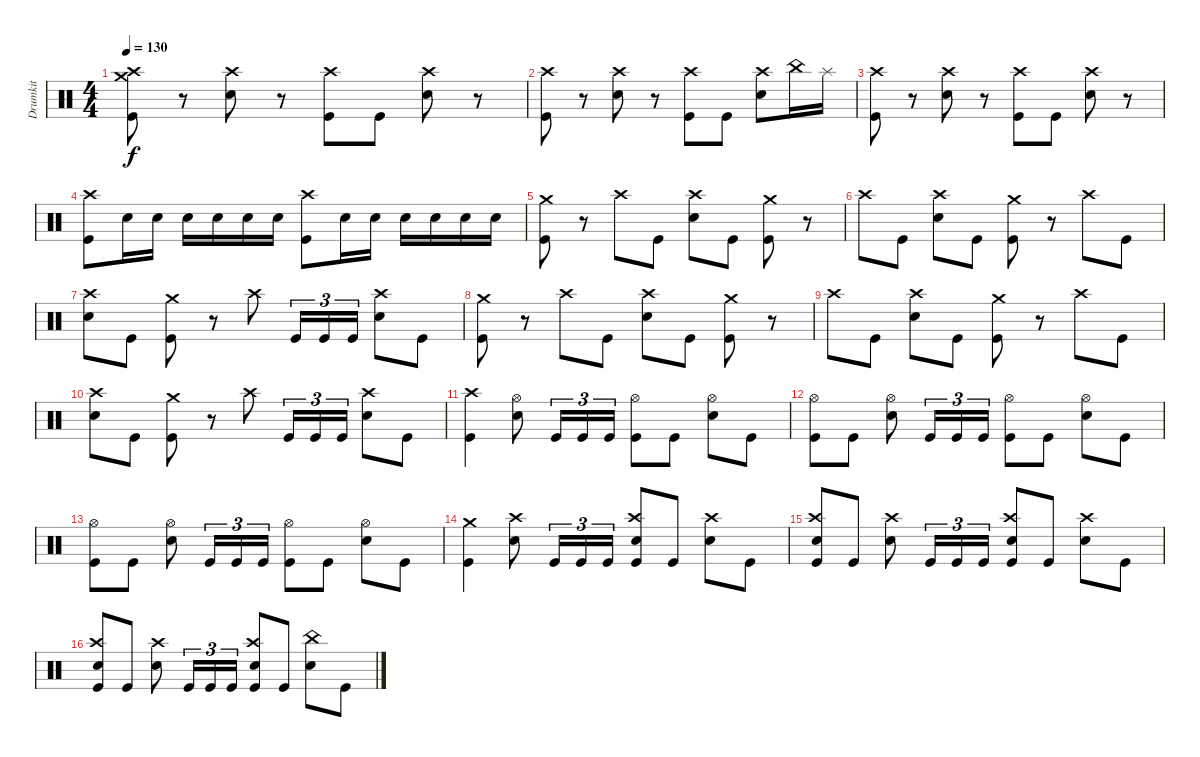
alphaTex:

\track ("Drumkit" "Drumkit") {instrument percussion}
\staff {score}
\articulation defaults
\ts (4 4)
\tempo 130
\clef neutral
\ks c
("Kick (hit)" "Crash high (hit)" "Crash medium (hit)").8{dy f} r.8 ("Snare (hit) 2" "Crash high (hit)").8 r.8 ("Kick (hit)" "Crash high (hit)").8 "Kick (hit)".8 ("Crash high (hit)" "Snare (hit) 2").8 r.8 |
("Kick (hit)" "Crash high (hit)").8 r.8 ("Snare (hit) 2" "Crash high (hit)").8 r.8 ("Kick (hit)" "Crash high (hit)").8 "Kick (hit)".8 ("Snare (hit) 2" "Crash high (hit)").8 "China (hit)".16 "Splash (hit)".16 |
("Kick (hit)" "Crash high (hit)").8 r.8 ("Snare (hit) 2" "Crash high (hit)").8 r.8 ("Kick (hit)" "Crash high (hit)").8 "Kick (hit)".8 ("Crash high (hit)" "Snare (hit) 2").8 r.8 |
("Kick (hit)" "Crash high (hit)").8 "Snare (hit) 2".16 "Snare (hit) 2".16 "Snare (hit) 2".16 "Snare (hit) 2".16 "Snare (hit) 2".16 "Snare (hit) 2".16 ("Kick (hit)" "Crash high (hit)").8 "Snare (hit) 2".16 "Snare (hit) 2".16 "Snare (hit) 2".16 "Snare (hit) 2".16 "Snare (hit) 2".16 "Snare (hit) 2".16 |
("Kick (hit)" "Crash medium (hit)").8 r.8 "Crash high (hit)".8 "Kick (hit)".8 ("Crash high (hit)" "Snare (hit) 2").8 "Kick (hit)".8 ("Kick (hit)" "Crash medium (hit)").8 r.8 |
"Crash high (hit)".8 "Kick (hit)".8 ("Crash high (hit)" "Snare (hit) 2").8 "Kick (hit)".8 ("Kick (hit)" "Crash medium (hit)").8 r.8 "Crash high (hit)".8 "Kick (hit)".8 |
("Snare (hit) 2" "Crash high (hit)").8 "Kick (hit)".8 ("Kick (hit)" "Crash medium (hit)").8 r.8 "Crash high (hit)".8 "Kick (hit)".16{tu (3 2)} "Kick (hit)".16{tu (3 2)} "Kick (hit)".16{tu (3 2)} ("Snare (hit) 2" "Crash high (hit)").8 "Kick (hit)".8 |
("Kick (hit)" "Crash medium (hit)").8 r.8 "Crash high (hit)".8 "Kick (hit)".8 ("Crash high (hit)" "Snare (hit) 2").8 "Kick (hit)".8 ("Kick (hit)" "Crash medium (hit)").8 r.8 |
"Crash high (hit)".8 "Kick (hit)".8 ("Crash high (hit)" "Snare (hit) 2").8 "Kick (hit)".8 ("Kick (hit)" "Crash medium (hit)").8 r.8 "Crash high (hit)".8 "Kick (hit)".8 |
("Snare (hit) 2" "Crash high (hit)").8 "Kick (hit)".8 ("Kick (hit)" "Crash medium (hit)").8 r.8 "Crash high (hit)".8 "Kick (hit)".16{tu (3 2)} "Kick (hit)".16{tu (3 2)} "Kick (hit)".16{tu (3 2)} ("Snare (hit) 2" "Crash high (hit)").8 "Kick (hit)".8 |
("Kick (hit)" "Crash high (hit)").4 ("Snare (hit) 2" "Hi-Hat (open)").8 "Kick (hit)".16{tu (3 2)} "Kick (hit)".16{tu (3 2)} "Kick (hit)".16{tu (3 2)} ("Kick (hit)" "Hi-Hat (open)").8 "Kick (hit)".8 ("Hi-Hat (open)" "Snare (hit) 2").8 "Kick (hit)".8 |
("Hi-Hat (open)" "Kick (hit)").8 "Kick (hit)".8 ("Snare (hit) 2" "Hi-Hat (open)").8 "Kick (hit)".16{tu (3 2)} "Kick (hit)".16{tu (3 2)} "Kick (hit)".16{tu (3 2)} ("Hi-Hat (open)" "Kick (hit)").8 "Kick (hit)".8 ("Snare (hit) 2" "Hi-Hat (open)").8 "Kick (hit)".8 |
("Hi-Hat (open)" "Kick (hit)").8 "Kick (hit)".8 ("Snare (hit) 2" "Hi-Hat (open)").8 "Kick (hit)".16{tu (3 2)} "Kick (hit)".16{tu (3 2)} "Kick (hit)".16{tu (3 2)} ("Hi-Hat (open)" "Kick (hit)").8 "Kick (hit)".8 ("Snare (hit) 2" "Hi-Hat (open)").8 "Kick (hit)".8 |
("Kick (hit)" "Crash medium (hit)").4 ("Snare (hit) 2" "Crash high (hit)").8 "Kick (hit)".16{tu (3 2)} "Kick (hit)".16{tu (3 2)} "Kick (hit)".16{tu (3 2)} ("Kick (hit)" "Crash high (hit)" "Snare (hit) 2").8 "Kick (hit)".8 ("Snare (hit) 2" "Crash high (hit)").8 "Kick (hit)".8 |
("Kick (hit)" "Snare (hit) 2" "Crash high (hit)").8 "Kick (hit)".8 ("Snare (hit) 2" "Crash high (hit)").8 "Kick (hit)".16{tu (3 2)} "Kick (hit)".16{tu (3 2)} "Kick (hit)".16{tu (3 2)} ("Kick (hit)" "Snare (hit) 2" "Crash high (hit)").8 "Kick (hit)".8 ("Snare (hit) 2" "Crash high (hit)").8 "Kick (hit)".8 |
("Kick (hit)" "Crash high (hit)" "Snare (hit) 2").8 "Kick (hit)".8 ("Snare (hit) 2" "Crash high (hit)").8 "Kick (hit)".16{tu (3 2)} "Kick (hit)".16{tu (3 2)} "Kick (hit)".16{tu (3 2)} ("Kick (hit)" "Snare (hit) 2" "Crash high (hit)").8 "Kick (hit)".8 ("Snare (hit) 2" "China (hit)").8 "Kick (hit)".8
